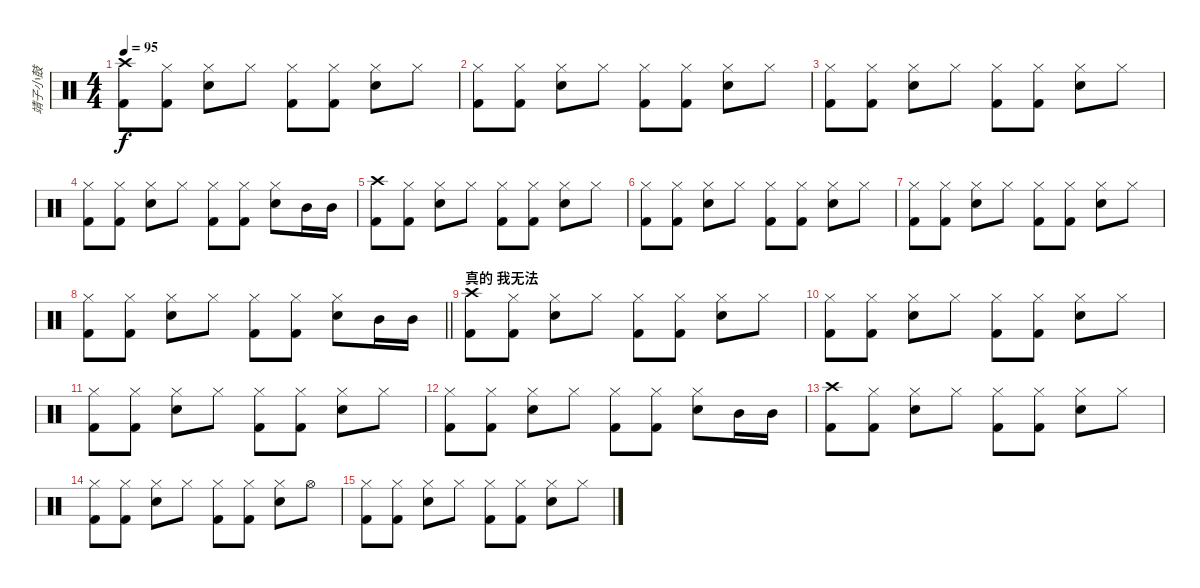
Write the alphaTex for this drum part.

\track ("靖子小鼓" "靖子小鼓") {instrument percussion}
\staff {score}
\articulation defaults
\ts (4 4)
\tempo 95
\clef neutral
\ks c
("Crash high (hit)" "Kick (hit) 2").8{dy f} ("Hi-Hat (closed)" "Kick (hit) 2").8 ("Hi-Hat (closed)" "Electric Snare (hit)").8 "Hi-Hat (closed)".8 ("Hi-Hat (closed)" "Kick (hit) 2").8 ("Hi-Hat (closed)" "Kick (hit) 2").8 ("Hi-Hat (closed)" "Electric Snare (hit)").8 "Hi-Hat (closed)".8 |
("Hi-Hat (closed)" "Kick (hit) 2").8 ("Hi-Hat (closed)" "Kick (hit) 2").8 ("Hi-Hat (closed)" "Electric Snare (hit)").8 "Hi-Hat (closed)".8 ("Hi-Hat (closed)" "Kick (hit) 2").8 ("Hi-Hat (closed)" "Kick (hit) 2").8 ("Hi-Hat (closed)" "Electric Snare (hit)").8 "Hi-Hat (closed)".8 |
("Hi-Hat (closed)" "Kick (hit) 2").8 ("Hi-Hat (closed)" "Kick (hit) 2").8 ("Hi-Hat (closed)" "Electric Snare (hit)").8 "Hi-Hat (closed)".8 ("Hi-Hat (closed)" "Kick (hit) 2").8 ("Hi-Hat (closed)" "Kick (hit) 2").8 ("Hi-Hat (closed)" "Electric Snare (hit)").8 "Hi-Hat (closed)".8 |
("Hi-Hat (closed)" "Kick (hit) 2").8 ("Hi-Hat (closed)" "Kick (hit) 2").8 ("Hi-Hat (closed)" "Electric Snare (hit)").8 "Hi-Hat (closed)".8 ("Hi-Hat (closed)" "Kick (hit) 2").8 ("Hi-Hat (closed)" "Kick (hit) 2").8 ("Hi-Hat (closed)" "Electric Snare (hit)").8 "Mid Tom (hit)".16 "Mid Tom (hit)".16 |
("Crash high (hit)" "Kick (hit) 2").8 ("Hi-Hat (closed)" "Kick (hit) 2").8 ("Hi-Hat (closed)" "Electric Snare (hit)").8 "Hi-Hat (closed)".8 ("Hi-Hat (closed)" "Kick (hit) 2").8 ("Hi-Hat (closed)" "Kick (hit) 2").8 ("Hi-Hat (closed)" "Electric Snare (hit)").8 "Hi-Hat (closed)".8 |
("Hi-Hat (closed)" "Kick (hit) 2").8 ("Hi-Hat (closed)" "Kick (hit) 2").8 ("Hi-Hat (closed)" "Electric Snare (hit)").8 "Hi-Hat (closed)".8 ("Hi-Hat (closed)" "Kick (hit) 2").8 ("Hi-Hat (closed)" "Kick (hit) 2").8 ("Hi-Hat (closed)" "Electric Snare (hit)").8 "Hi-Hat (closed)".8 |
("Hi-Hat (closed)" "Kick (hit) 2").8 ("Hi-Hat (closed)" "Kick (hit) 2").8 ("Hi-Hat (closed)" "Electric Snare (hit)").8 "Hi-Hat (closed)".8 ("Hi-Hat (closed)" "Kick (hit) 2").8 ("Hi-Hat (closed)" "Kick (hit) 2").8 ("Hi-Hat (closed)" "Electric Snare (hit)").8 "Hi-Hat (closed)".8 |
\barLineRight lightlight
("Hi-Hat (closed)" "Kick (hit) 2").8 ("Hi-Hat (closed)" "Kick (hit) 2").8 ("Hi-Hat (closed)" "Electric Snare (hit)").8 "Hi-Hat (closed)".8 ("Hi-Hat (closed)" "Kick (hit) 2").8 ("Hi-Hat (closed)" "Kick (hit) 2").8 ("Hi-Hat (closed)" "Electric Snare (hit)").8 "Mid Tom (hit)".16 "Mid Tom (hit)".16 |
\section ("" "真的 我无法")
("Crash high (hit)" "Kick (hit) 2").8 ("Hi-Hat (closed)" "Kick (hit) 2").8 ("Hi-Hat (closed)" "Electric Snare (hit)").8 "Hi-Hat (closed)".8 ("Hi-Hat (closed)" "Kick (hit) 2").8 ("Hi-Hat (closed)" "Kick (hit) 2").8 ("Hi-Hat (closed)" "Electric Snare (hit)").8 "Hi-Hat (closed)".8 |
("Hi-Hat (closed)" "Kick (hit) 2").8 ("Hi-Hat (closed)" "Kick (hit) 2").8 ("Hi-Hat (closed)" "Electric Snare (hit)").8 "Hi-Hat (closed)".8 ("Hi-Hat (closed)" "Kick (hit) 2").8 ("Hi-Hat (closed)" "Kick (hit) 2").8 ("Hi-Hat (closed)" "Electric Snare (hit)").8 "Hi-Hat (closed)".8 |
("Hi-Hat (closed)" "Kick (hit) 2").8 ("Hi-Hat (closed)" "Kick (hit) 2").8 ("Hi-Hat (closed)" "Electric Snare (hit)").8 "Hi-Hat (closed)".8 ("Hi-Hat (closed)" "Kick (hit) 2").8 ("Hi-Hat (closed)" "Kick (hit) 2").8 ("Hi-Hat (closed)" "Electric Snare (hit)").8 "Hi-Hat (closed)".8 |
("Hi-Hat (closed)" "Kick (hit) 2").8 ("Hi-Hat (closed)" "Kick (hit) 2").8 ("Hi-Hat (closed)" "Electric Snare (hit)").8 "Hi-Hat (closed)".8 ("Hi-Hat (closed)" "Kick (hit) 2").8 ("Hi-Hat (closed)" "Kick (hit) 2").8 ("Hi-Hat (closed)" "Electric Snare (hit)").8 "Mid Tom (hit)".16 "Mid Tom (hit)".16 |
("Crash high (hit)" "Kick (hit) 2").8 ("Hi-Hat (closed)" "Kick (hit) 2").8 ("Hi-Hat (closed)" "Electric Snare (hit)").8 "Hi-Hat (closed)".8 ("Hi-Hat (closed)" "Kick (hit) 2").8 ("Hi-Hat (closed)" "Kick (hit) 2").8 ("Hi-Hat (closed)" "Electric Snare (hit)").8 "Hi-Hat (closed)".8 |
("Hi-Hat (closed)" "Kick (hit) 2").8 ("Hi-Hat (closed)" "Kick (hit) 2").8 ("Hi-Hat (closed)" "Electric Snare (hit)").8 "Hi-Hat (closed)".8 ("Hi-Hat (closed)" "Kick (hit) 2").8 ("Hi-Hat (closed)" "Kick (hit) 2").8 ("Hi-Hat (closed)" "Electric Snare (hit)").8 "Hi-Hat (open)".8 |
("Hi-Hat (closed)" "Kick (hit) 2").8 ("Hi-Hat (closed)" "Kick (hit) 2").8 ("Hi-Hat (closed)" "Electric Snare (hit)").8 "Hi-Hat (closed)".8 ("Hi-Hat (closed)" "Kick (hit) 2").8 ("Hi-Hat (closed)" "Kick (hit) 2").8 ("Hi-Hat (closed)" "Electric Snare (hit)").8 "Hi-Hat (closed)".8
